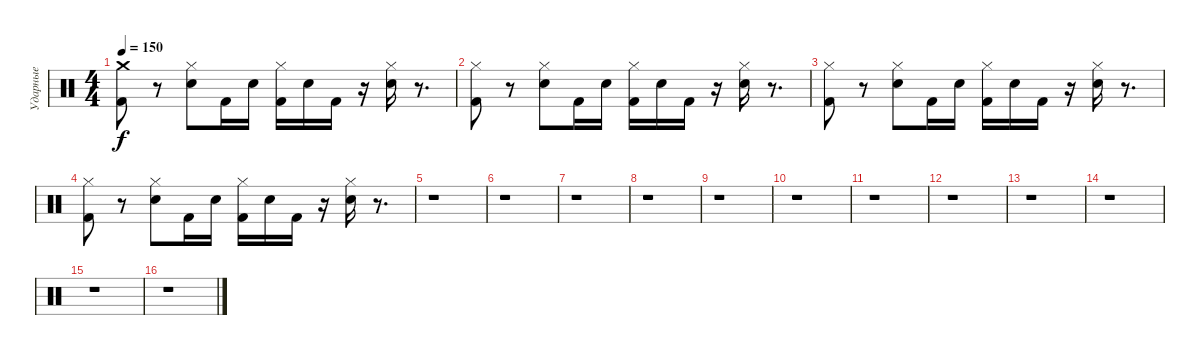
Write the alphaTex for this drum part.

\track ("Ударные" "Ударные") {instrument percussion}
\staff {score}
\articulation defaults
\ts (4 4)
\tempo 150
\clef neutral
\ks c
("Crash medium (hit)" "Kick (hit) 2").8{dy f} r.8 ("Hi-Hat (closed)" "Electric Snare (hit)").8 "Kick (hit) 2".16 "Electric Snare (hit)".16 ("Hi-Hat (closed)" "Kick (hit) 2").16 "Electric Snare (hit)".16 "Kick (hit) 2".16 r.16 ("Hi-Hat (closed)" "Electric Snare (hit)").16 r.8{d} |
("Hi-Hat (closed)" "Kick (hit) 2").8 r.8 ("Hi-Hat (closed)" "Electric Snare (hit)").8 "Kick (hit) 2".16 "Electric Snare (hit)".16 ("Hi-Hat (closed)" "Kick (hit) 2").16 "Electric Snare (hit)".16 "Kick (hit) 2".16 r.16 ("Hi-Hat (closed)" "Electric Snare (hit)").16 r.8{d} |
("Hi-Hat (closed)" "Kick (hit) 2").8 r.8 ("Hi-Hat (closed)" "Electric Snare (hit)").8 "Kick (hit) 2".16 "Electric Snare (hit)".16 ("Hi-Hat (closed)" "Kick (hit) 2").16 "Electric Snare (hit)".16 "Kick (hit) 2".16 r.16 ("Hi-Hat (closed)" "Electric Snare (hit)").16 r.8{d} |
("Hi-Hat (closed)" "Kick (hit) 2").8 r.8 ("Hi-Hat (closed)" "Electric Snare (hit)").8 "Kick (hit) 2".16 "Electric Snare (hit)".16 ("Hi-Hat (closed)" "Kick (hit) 2").16 "Electric Snare (hit)".16 "Kick (hit) 2".16 r.16 ("Hi-Hat (closed)" "Electric Snare (hit)").16 r.8{d} |
r.1 |
r.1 |
r.1 |
r.1 |
r.1 |
r.1 |
r.1 |
r.1 |
r.1 |
r.1 |
r.1 |
r.1
